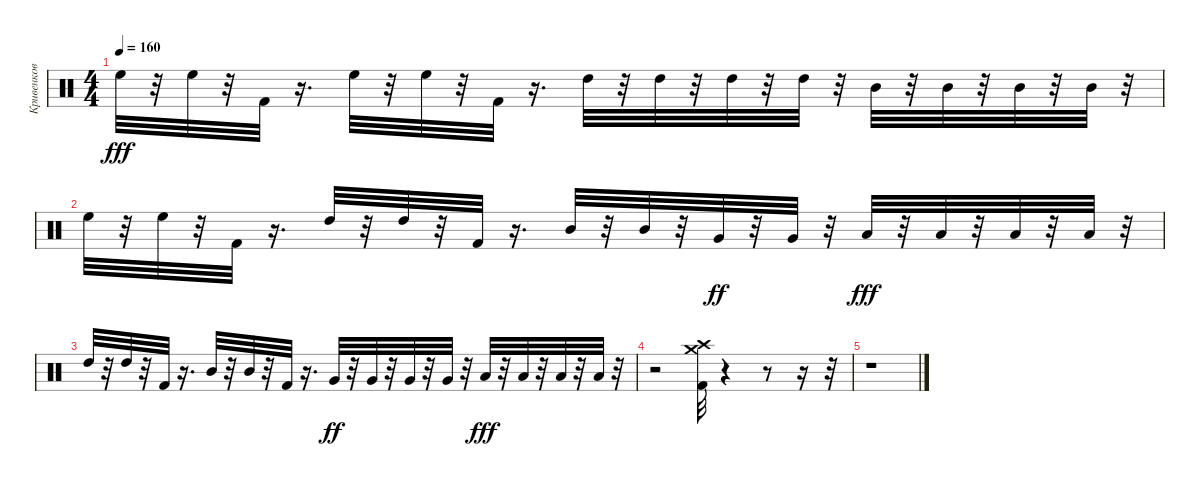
\track ("Кривенков" "Кривенков") {instrument percussion}
\staff {score}
\articulation defaults
\ts (4 4)
\tempo 160
\clef neutral
\ks c "High Floor Tom (hit)".32{dy fff}
r.32 "High Floor Tom (hit)".32 r.32 "Kick (hit) 2".32 r.16{d} "High Floor Tom (hit)".32 r.32 "High Floor Tom (hit)".32 r.32 "Kick (hit) 2".32 r.16{d} "High Tom (hit)".32 r.32 "High Tom (hit)".32 r.32 "High Tom (hit)".32 r.32 "High Tom (hit)".32 r.32 "Mid Tom (hit)".32 r.32 "Mid Tom (hit)".32 r.32 "Mid Tom (hit)".32 r.32 "Mid Tom (hit)".32 r.32 |
"High Floor Tom (hit)".32 r.32 "High Floor Tom (hit)".32 r.32 "Kick (hit) 2".32 r.16{d} "High Tom (hit)".32 r.32 "High Tom (hit)".32 r.32 "Kick (hit) 2".32 r.16{d} "Mid Tom (hit)".32 r.32 "Mid Tom (hit)".32 r.32 "Very Low Tom (hit)".32{dy ff} r.32 "Very Low Tom (hit)".32 r.32 "Low Tom (hit)".32{dy fff} r.32 "Low Tom (hit)".32 r.32 "Low Tom (hit)".32 r.32 "Low Tom (hit)".32 r.32 |
"High Tom (hit)".32 r.32 "High Tom (hit)".32 r.32 "Kick (hit) 2".32 r.16{d} "Mid Tom (hit)".32 r.32 "Mid Tom (hit)".32 r.32 "Kick (hit) 2".32 r.16{d} "Very Low Tom (hit)".32{dy ff} r.32 "Very Low Tom (hit)".32 r.32 "Very Low Tom (hit)".32 r.32 "Very Low Tom (hit)".32 r.32 "Low Tom (hit)".32{dy fff} r.32 "Low Tom (hit)".32 r.32 "Low Tom (hit)".32 r.32 "Low Tom (hit)".32 r.32 |
r.2 ("Kick (hit) 2" "Crash high (hit)" "Crash medium (hit)").32 r.4 r.8 r.16 r.32 |
r.1
